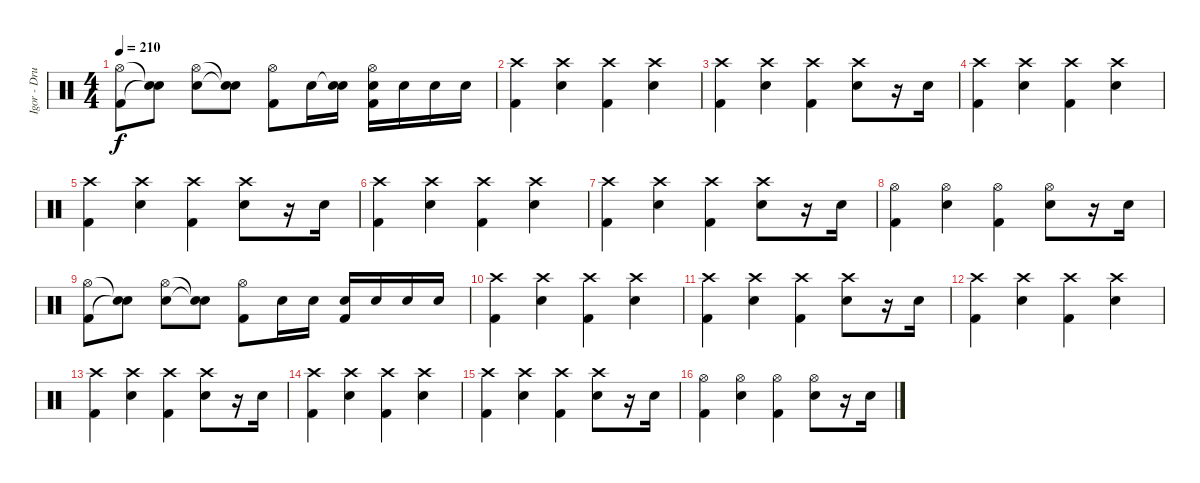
\track ("Igor - Drums" "Igor - Dru") {instrument percussion}
\staff {score}
\articulation defaults
\ts (4 4)
\tempo 210
\clef neutral
\ks c
("Hi-Hat (open)" "Kick (hit) 2").8{dy f} ("Snare (hit)"{t} "Snare (hit)"{t}).8 ("Hi-Hat (open)" "Snare (hit) 2").8 ("Snare (hit)"{t} "Snare (hit)"{t}).8 ("Hi-Hat (open)" "Kick (hit) 2").8 "Snare (hit) 2".16 ("Snare (hit)"{t} "Snare (hit) 2").16 ("Hi-Hat (open)" "Snare (hit) 2" "Kick (hit) 2").16 "Snare (hit) 2".16 "Snare (hit) 2".16 "Snare (hit) 2".16 |
("Crash high (hit)" "Kick (hit) 2").4 ("Crash high (hit)" "Snare (hit) 2").4 ("Crash high (hit)" "Kick (hit) 2").4 ("Crash high (hit)" "Snare (hit) 2").4 |
("Crash high (hit)" "Kick (hit) 2").4 ("Crash high (hit)" "Snare (hit) 2").4 ("Crash high (hit)" "Kick (hit) 2").4 ("Crash high (hit)" "Snare (hit) 2").8 r.16 "Snare (hit) 2".16 |
("Crash high (hit)" "Kick (hit) 2").4 ("Crash high (hit)" "Snare (hit) 2").4 ("Crash high (hit)" "Kick (hit) 2").4 ("Crash high (hit)" "Snare (hit) 2").4 |
("Crash high (hit)" "Kick (hit) 2").4 ("Crash high (hit)" "Snare (hit) 2").4 ("Crash high (hit)" "Kick (hit) 2").4 ("Crash high (hit)" "Snare (hit) 2").8 r.16 "Snare (hit) 2".16 |
("Crash high (hit)" "Kick (hit) 2").4 ("Crash high (hit)" "Snare (hit) 2").4 ("Crash high (hit)" "Kick (hit) 2").4 ("Crash high (hit)" "Snare (hit) 2").4 |
("Crash high (hit)" "Kick (hit) 2").4 ("Crash high (hit)" "Snare (hit) 2").4 ("Crash high (hit)" "Kick (hit) 2").4 ("Crash high (hit)" "Snare (hit) 2").8 r.16 "Snare (hit) 2".16 |
("Hi-Hat (open)" "Kick (hit) 2").4 ("Hi-Hat (open)" "Snare (hit) 2").4 ("Hi-Hat (open)" "Kick (hit) 2").4 ("Hi-Hat (open)" "Snare (hit) 2").8 r.16 "Snare (hit) 2".16 |
("Hi-Hat (open)" "Kick (hit) 2").8 ("Snare (hit)"{t} "Snare (hit)"{t}).8 ("Hi-Hat (open)" "Snare (hit) 2").8 ("Snare (hit)"{t} "Snare (hit)"{t}).8 ("Hi-Hat (open)" "Kick (hit) 2").8 "Snare (hit) 2".16 "Snare (hit) 2".16 ("Snare (hit) 2" "Kick (hit) 2").16 "Snare (hit) 2".16 "Snare (hit) 2".16 "Snare (hit) 2".16 |
("Crash high (hit)" "Kick (hit) 2").4 ("Crash high (hit)" "Snare (hit) 2").4 ("Crash high (hit)" "Kick (hit) 2").4 ("Crash high (hit)" "Snare (hit) 2").4 |
("Crash high (hit)" "Kick (hit) 2").4 ("Crash high (hit)" "Snare (hit) 2").4 ("Crash high (hit)" "Kick (hit) 2").4 ("Crash high (hit)" "Snare (hit) 2").8 r.16 "Snare (hit) 2".16 |
("Crash high (hit)" "Kick (hit) 2").4 ("Crash high (hit)" "Snare (hit) 2").4 ("Crash high (hit)" "Kick (hit) 2").4 ("Crash high (hit)" "Snare (hit) 2").4 |
("Crash high (hit)" "Kick (hit) 2").4 ("Crash high (hit)" "Snare (hit) 2").4 ("Crash high (hit)" "Kick (hit) 2").4 ("Crash high (hit)" "Snare (hit) 2").8 r.16 "Snare (hit) 2".16 |
("Crash high (hit)" "Kick (hit) 2").4 ("Crash high (hit)" "Snare (hit) 2").4 ("Crash high (hit)" "Kick (hit) 2").4 ("Crash high (hit)" "Snare (hit) 2").4 |
("Crash high (hit)" "Kick (hit) 2").4 ("Crash high (hit)" "Snare (hit) 2").4 ("Crash high (hit)" "Kick (hit) 2").4 ("Crash high (hit)" "Snare (hit) 2").8 r.16 "Snare (hit) 2".16 |
("Hi-Hat (open)" "Kick (hit) 2").4 ("Hi-Hat (open)" "Snare (hit) 2").4 ("Hi-Hat (open)" "Kick (hit) 2").4 ("Hi-Hat (open)" "Snare (hit) 2").8 r.16 "Snare (hit) 2".16
